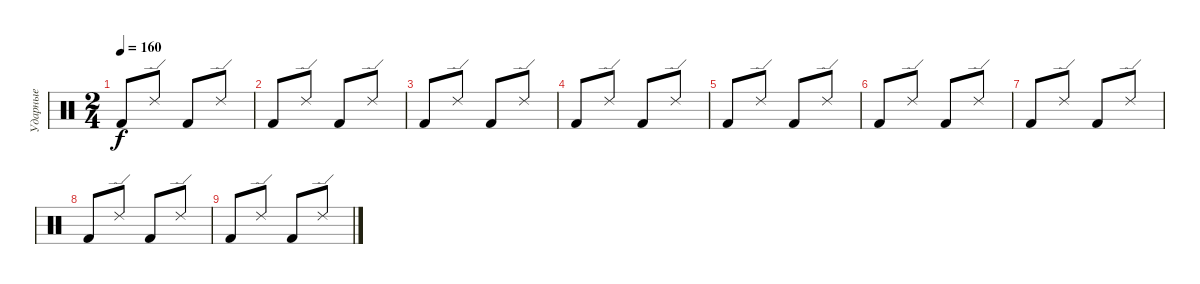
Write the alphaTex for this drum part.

\track ("Ударные" "Ударные") {instrument percussion}
\staff {score}
\articulation defaults
\ts (2 4)
\tempo 160
\clef neutral
\ks c "Kick (hit) 2".8{dy f} "Ride (edge) 2".8 "Kick (hit) 2".8 "Ride (edge) 2".8
|
"Kick (hit) 2".8 "Ride (edge) 2".8 "Kick (hit) 2".8 "Ride (edge) 2".8 |
"Kick (hit) 2".8 "Ride (edge) 2".8 "Kick (hit) 2".8 "Ride (edge) 2".8 |
"Kick (hit) 2".8 "Ride (edge) 2".8 "Kick (hit) 2".8 "Ride (edge) 2".8 |
"Kick (hit) 2".8 "Ride (edge) 2".8 "Kick (hit) 2".8 "Ride (edge) 2".8 |
"Kick (hit) 2".8 "Ride (edge) 2".8 "Kick (hit) 2".8 "Ride (edge) 2".8 |
"Kick (hit) 2".8 "Ride (edge) 2".8 "Kick (hit) 2".8 "Ride (edge) 2".8 |
"Kick (hit) 2".8 "Ride (edge) 2".8 "Kick (hit) 2".8 "Ride (edge) 2".8 |
"Kick (hit) 2".8 "Ride (edge) 2".8 "Kick (hit) 2".8 "Ride (edge) 2".8
